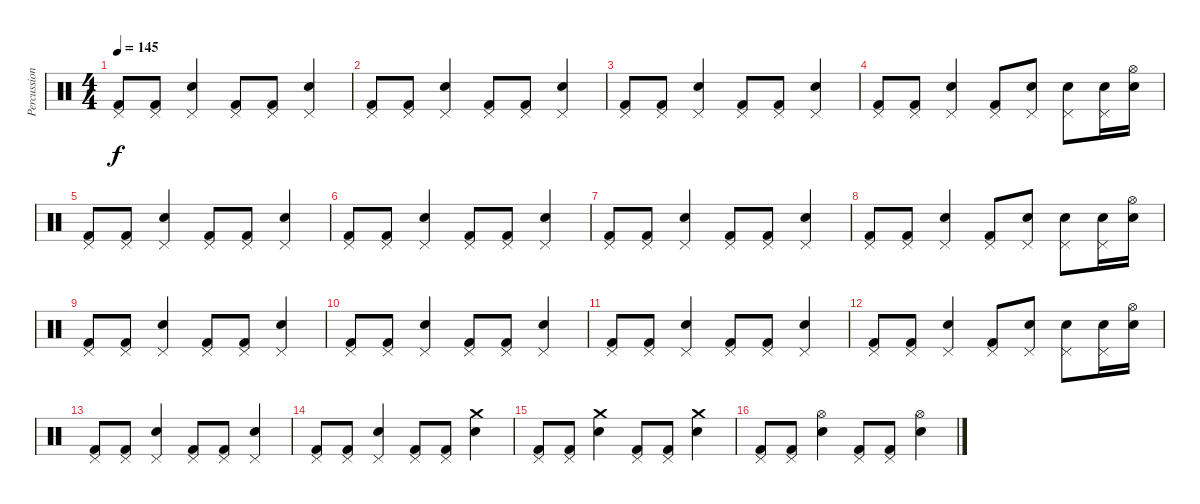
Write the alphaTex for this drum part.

\track ("Percussion" "Percussion") {instrument percussion}
\staff {score}
\articulation defaults
\ts (4 4)
\tempo 145
\clef neutral
\ks c
("Pedal Hi-Hat (hit)" "Kick (hit) 2").8{dy f} ("Pedal Hi-Hat (hit)" "Kick (hit) 2").8 ("Pedal Hi-Hat (hit)" "Snare (hit) 2").4 ("Pedal Hi-Hat (hit)" "Kick (hit) 2").8 ("Pedal Hi-Hat (hit)" "Kick (hit) 2").8 ("Pedal Hi-Hat (hit)" "Snare (hit) 2").4 |
("Pedal Hi-Hat (hit)" "Kick (hit) 2").8 ("Pedal Hi-Hat (hit)" "Kick (hit) 2").8 ("Pedal Hi-Hat (hit)" "Snare (hit) 2").4 ("Pedal Hi-Hat (hit)" "Kick (hit) 2").8 ("Pedal Hi-Hat (hit)" "Kick (hit) 2").8 ("Pedal Hi-Hat (hit)" "Snare (hit) 2").4 |
("Pedal Hi-Hat (hit)" "Kick (hit) 2").8 ("Pedal Hi-Hat (hit)" "Kick (hit) 2").8 ("Pedal Hi-Hat (hit)" "Snare (hit) 2").4 ("Pedal Hi-Hat (hit)" "Kick (hit) 2").8 ("Pedal Hi-Hat (hit)" "Kick (hit) 2").8 ("Pedal Hi-Hat (hit)" "Snare (hit) 2").4 |
("Pedal Hi-Hat (hit)" "Kick (hit) 2").8 ("Pedal Hi-Hat (hit)" "Kick (hit) 2").8 ("Pedal Hi-Hat (hit)" "Snare (hit) 2").4 ("Pedal Hi-Hat (hit)" "Kick (hit) 2").8 ("Pedal Hi-Hat (hit)" "Snare (hit) 2").8 ("Pedal Hi-Hat (hit)" "Snare (hit) 2").8 ("Pedal Hi-Hat (hit)" "Snare (hit) 2").16 ("Hi-Hat (open)" "Snare (hit) 2").16 |
("Pedal Hi-Hat (hit)" "Kick (hit) 2").8 ("Pedal Hi-Hat (hit)" "Kick (hit) 2").8 ("Pedal Hi-Hat (hit)" "Snare (hit) 2").4 ("Pedal Hi-Hat (hit)" "Kick (hit) 2").8 ("Pedal Hi-Hat (hit)" "Kick (hit) 2").8 ("Pedal Hi-Hat (hit)" "Snare (hit) 2").4 |
("Pedal Hi-Hat (hit)" "Kick (hit) 2").8 ("Pedal Hi-Hat (hit)" "Kick (hit) 2").8 ("Pedal Hi-Hat (hit)" "Snare (hit) 2").4 ("Pedal Hi-Hat (hit)" "Kick (hit) 2").8 ("Pedal Hi-Hat (hit)" "Kick (hit) 2").8 ("Pedal Hi-Hat (hit)" "Snare (hit) 2").4 |
("Pedal Hi-Hat (hit)" "Kick (hit) 2").8 ("Pedal Hi-Hat (hit)" "Kick (hit) 2").8 ("Pedal Hi-Hat (hit)" "Snare (hit) 2").4 ("Pedal Hi-Hat (hit)" "Kick (hit) 2").8 ("Pedal Hi-Hat (hit)" "Kick (hit) 2").8 ("Pedal Hi-Hat (hit)" "Snare (hit) 2").4 |
("Pedal Hi-Hat (hit)" "Kick (hit) 2").8 ("Pedal Hi-Hat (hit)" "Kick (hit) 2").8 ("Pedal Hi-Hat (hit)" "Snare (hit) 2").4 ("Pedal Hi-Hat (hit)" "Kick (hit) 2").8 ("Pedal Hi-Hat (hit)" "Snare (hit) 2").8 ("Pedal Hi-Hat (hit)" "Snare (hit) 2").8 ("Pedal Hi-Hat (hit)" "Snare (hit) 2").16 ("Hi-Hat (open)" "Snare (hit) 2").16 |
("Pedal Hi-Hat (hit)" "Kick (hit) 2").8 ("Pedal Hi-Hat (hit)" "Kick (hit) 2").8 ("Pedal Hi-Hat (hit)" "Snare (hit) 2").4 ("Pedal Hi-Hat (hit)" "Kick (hit) 2").8 ("Pedal Hi-Hat (hit)" "Kick (hit) 2").8 ("Pedal Hi-Hat (hit)" "Snare (hit) 2").4 |
("Pedal Hi-Hat (hit)" "Kick (hit) 2").8 ("Pedal Hi-Hat (hit)" "Kick (hit) 2").8 ("Pedal Hi-Hat (hit)" "Snare (hit) 2").4 ("Pedal Hi-Hat (hit)" "Kick (hit) 2").8 ("Pedal Hi-Hat (hit)" "Kick (hit) 2").8 ("Pedal Hi-Hat (hit)" "Snare (hit) 2").4 |
("Pedal Hi-Hat (hit)" "Kick (hit) 2").8 ("Pedal Hi-Hat (hit)" "Kick (hit) 2").8 ("Pedal Hi-Hat (hit)" "Snare (hit) 2").4 ("Pedal Hi-Hat (hit)" "Kick (hit) 2").8 ("Pedal Hi-Hat (hit)" "Kick (hit) 2").8 ("Pedal Hi-Hat (hit)" "Snare (hit) 2").4 |
("Pedal Hi-Hat (hit)" "Kick (hit) 2").8 ("Pedal Hi-Hat (hit)" "Kick (hit) 2").8 ("Pedal Hi-Hat (hit)" "Snare (hit) 2").4 ("Pedal Hi-Hat (hit)" "Kick (hit) 2").8 ("Pedal Hi-Hat (hit)" "Snare (hit) 2").8 ("Pedal Hi-Hat (hit)" "Snare (hit) 2").8 ("Pedal Hi-Hat (hit)" "Snare (hit) 2").16 ("Hi-Hat (open)" "Snare (hit) 2").16 |
("Pedal Hi-Hat (hit)" "Kick (hit) 2").8 ("Pedal Hi-Hat (hit)" "Kick (hit) 2").8 ("Pedal Hi-Hat (hit)" "Snare (hit) 2").4 ("Pedal Hi-Hat (hit)" "Kick (hit) 2").8 ("Pedal Hi-Hat (hit)" "Kick (hit) 2").8 ("Pedal Hi-Hat (hit)" "Snare (hit) 2").4 |
("Pedal Hi-Hat (hit)" "Kick (hit) 2").8 ("Pedal Hi-Hat (hit)" "Kick (hit) 2").8 ("Pedal Hi-Hat (hit)" "Snare (hit) 2").4 ("Pedal Hi-Hat (hit)" "Kick (hit) 2").8 ("Pedal Hi-Hat (hit)" "Kick (hit) 2").8 ("Crash medium (hit)" "Snare (hit) 2").4 |
("Pedal Hi-Hat (hit)" "Kick (hit) 2").8 ("Pedal Hi-Hat (hit)" "Kick (hit) 2").8 ("Crash medium (hit)" "Snare (hit) 2").4 ("Pedal Hi-Hat (hit)" "Kick (hit) 2").8 ("Pedal Hi-Hat (hit)" "Kick (hit) 2").8 ("Crash medium (hit)" "Snare (hit) 2").4 |
("Pedal Hi-Hat (hit)" "Kick (hit) 2").8 ("Pedal Hi-Hat (hit)" "Kick (hit) 2").8 ("Hi-Hat (open)" "Snare (hit) 2").4 ("Pedal Hi-Hat (hit)" "Kick (hit) 2").8 ("Pedal Hi-Hat (hit)" "Kick (hit) 2").8 ("Hi-Hat (open)" "Snare (hit) 2").4
